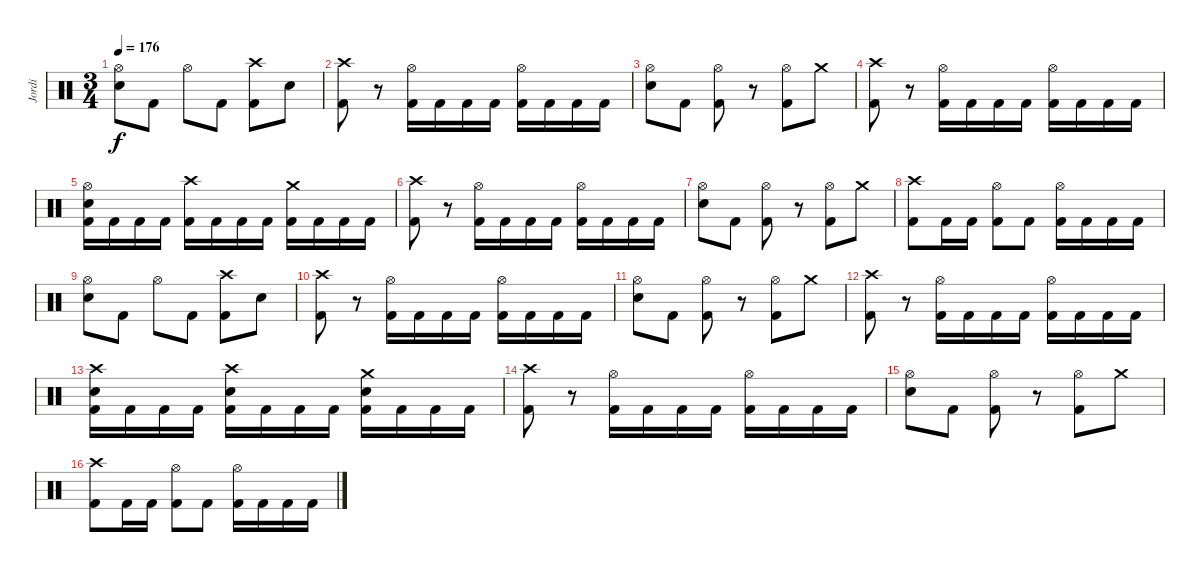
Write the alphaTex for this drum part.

\track ("Jordi" "Jordi") {instrument percussion}
\staff {score}
\articulation defaults
\ts (3 4)
\tempo 176
\clef neutral
\ks c
("Hi-Hat (open)" "Snare (hit) 2").8{dy f} "Kick (hit) 2".8 "Hi-Hat (open)".8 "Kick (hit) 2".8 ("Crash high (hit)" "Kick (hit) 2").8 "Snare (hit) 2".8 |
("Crash high (hit)" "Kick (hit) 2").8 r.8 ("Hi-Hat (open)" "Kick (hit) 2").16 "Kick (hit) 2".16 "Kick (hit) 2".16 "Kick (hit) 2".16 ("Hi-Hat (open)" "Kick (hit) 2").16 "Kick (hit) 2".16 "Kick (hit) 2".16 "Kick (hit) 2".16 |
("Hi-Hat (open)" "Snare (hit) 2").8 "Kick (hit) 2".8 ("Hi-Hat (open)" "Kick (hit) 2").8 r.8 ("Hi-Hat (open)" "Kick (hit) 2").8 "Crash medium (hit)".8 |
("Crash high (hit)" "Kick (hit) 2").8 r.8 ("Hi-Hat (open)" "Kick (hit) 2").16 "Kick (hit) 2".16 "Kick (hit) 2".16 "Kick (hit) 2".16 ("Hi-Hat (open)" "Kick (hit) 2").16 "Kick (hit) 2".16 "Kick (hit) 2".16 "Kick (hit) 2".16 |
("Hi-Hat (open)" "Snare (hit) 2" "Kick (hit) 2").16 "Kick (hit) 2".16 "Kick (hit) 2".16 "Kick (hit) 2".16 ("Crash high (hit)" "Kick (hit) 2").16 "Kick (hit) 2".16 "Kick (hit) 2".16 "Kick (hit) 2".16 ("Crash medium (hit)" "Kick (hit) 2").16 "Kick (hit) 2".16 "Kick (hit) 2".16 "Kick (hit) 2".16 |
("Crash high (hit)" "Kick (hit) 2").8 r.8 ("Hi-Hat (open)" "Kick (hit) 2").16 "Kick (hit) 2".16 "Kick (hit) 2".16 "Kick (hit) 2".16 ("Hi-Hat (open)" "Kick (hit) 2").16 "Kick (hit) 2".16 "Kick (hit) 2".16 "Kick (hit) 2".16 |
("Hi-Hat (open)" "Snare (hit) 2").8 "Kick (hit) 2".8 ("Hi-Hat (open)" "Kick (hit) 2").8 r.8 ("Hi-Hat (open)" "Kick (hit) 2").8 "Crash medium (hit)".8 |
("Crash high (hit)" "Kick (hit) 2").8 "Kick (hit) 2".16 "Kick (hit) 2".16 ("Hi-Hat (open)" "Kick (hit) 2").8 "Kick (hit) 2".8 ("Hi-Hat (open)" "Kick (hit) 2").16 "Kick (hit) 2".16 "Kick (hit) 2".16 "Kick (hit) 2".16 |
("Hi-Hat (open)" "Snare (hit) 2").8 "Kick (hit) 2".8 "Hi-Hat (open)".8 "Kick (hit) 2".8 ("Crash high (hit)" "Kick (hit) 2").8 "Snare (hit) 2".8 |
("Crash high (hit)" "Kick (hit) 2").8 r.8 ("Hi-Hat (open)" "Kick (hit) 2").16 "Kick (hit) 2".16 "Kick (hit) 2".16 "Kick (hit) 2".16 ("Hi-Hat (open)" "Kick (hit) 2").16 "Kick (hit) 2".16 "Kick (hit) 2".16 "Kick (hit) 2".16 |
("Hi-Hat (open)" "Snare (hit) 2").8 "Kick (hit) 2".8 ("Hi-Hat (open)" "Kick (hit) 2").8 r.8 ("Hi-Hat (open)" "Kick (hit) 2").8 "Crash medium (hit)".8 |
("Crash high (hit)" "Kick (hit) 2").8 r.8 ("Hi-Hat (open)" "Kick (hit) 2").16 "Kick (hit) 2".16 "Kick (hit) 2".16 "Kick (hit) 2".16 ("Hi-Hat (open)" "Kick (hit) 2").16 "Kick (hit) 2".16 "Kick (hit) 2".16 "Kick (hit) 2".16 |
("Crash high (hit)" "Snare (hit) 2" "Kick (hit) 2").16 "Kick (hit) 2".16 "Kick (hit) 2".16 "Kick (hit) 2".16 ("Crash high (hit)" "Snare (hit) 2" "Kick (hit) 2").16 "Kick (hit) 2".16 "Kick (hit) 2".16 "Kick (hit) 2".16 ("Crash medium (hit)" "Snare (hit) 2" "Kick (hit) 2").16 "Kick (hit) 2".16 "Kick (hit) 2".16 "Kick (hit) 2".16 |
("Crash high (hit)" "Kick (hit) 2").8 r.8 ("Hi-Hat (open)" "Kick (hit) 2").16 "Kick (hit) 2".16 "Kick (hit) 2".16 "Kick (hit) 2".16 ("Hi-Hat (open)" "Kick (hit) 2").16 "Kick (hit) 2".16 "Kick (hit) 2".16 "Kick (hit) 2".16 |
("Hi-Hat (open)" "Snare (hit) 2").8 "Kick (hit) 2".8 ("Hi-Hat (open)" "Kick (hit) 2").8 r.8 ("Hi-Hat (open)" "Kick (hit) 2").8 "Crash medium (hit)".8 |
("Crash high (hit)" "Kick (hit) 2").8 "Kick (hit) 2".16 "Kick (hit) 2".16 ("Hi-Hat (open)" "Kick (hit) 2").8 "Kick (hit) 2".8 ("Hi-Hat (open)" "Kick (hit) 2").16 "Kick (hit) 2".16 "Kick (hit) 2".16 "Kick (hit) 2".16
